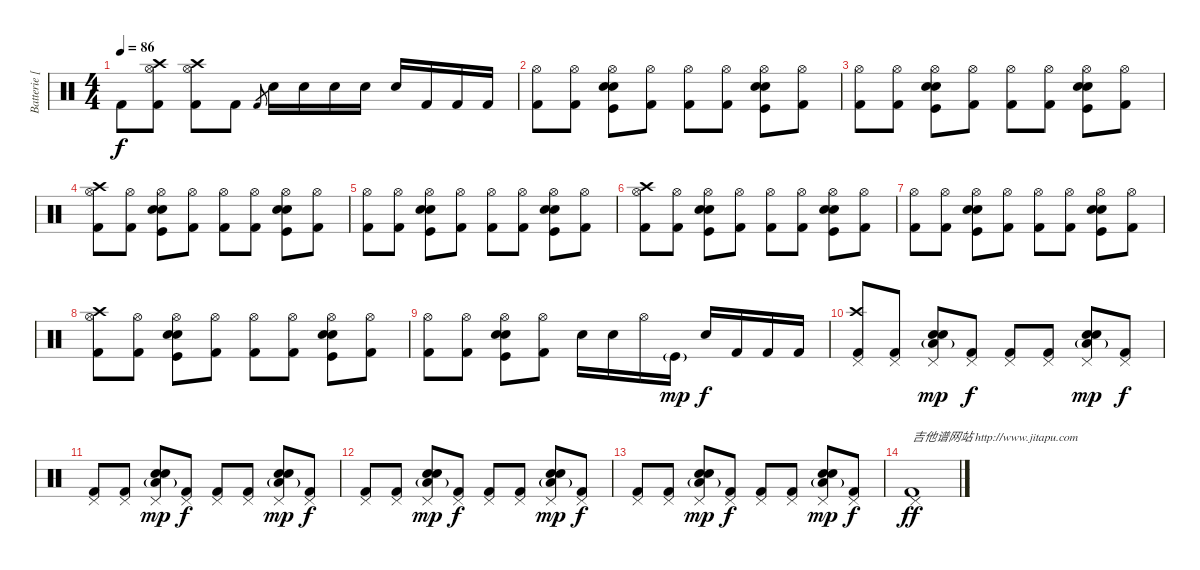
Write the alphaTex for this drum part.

\track ("Batterie [Dominic Howard]" "Batterie [") {instrument percussion}
\staff {score}
\articulation defaults
\ts (4 4)
\tempo 86
\clef neutral
\ks c "Kick (hit) 2".8{dy f}
("Crash high (hit)" "Hi-Hat (open)" "Kick (hit) 2").8 ("Crash high (hit)" "Hi-Hat (open)" "Kick (hit) 2").8 "Kick (hit) 2".8 "Kick (hit) 2"{sl}.8{gr} "Snare (hit) 2".16 "Snare (hit) 2".16 "Snare (hit) 2".16 "Snare (hit) 2".16 "Snare (hit) 2".16 "Kick (hit) 2".16 "Kick (hit) 2".16 "Kick (hit) 2".16 |
("Hi-Hat (open)" "Kick (hit) 2").8 ("Hi-Hat (open)" "Kick (hit) 2").8 ("Hi-Hat (open)" "Snare (hit) 2" "Electric Snare (hit)" "Kick (hit)").8 ("Hi-Hat (open)" "Kick (hit) 2").8 ("Hi-Hat (open)" "Kick (hit) 2").8 ("Hi-Hat (open)" "Kick (hit) 2").8 ("Hi-Hat (open)" "Snare (hit) 2" "Electric Snare (hit)" "Kick (hit)").8 ("Hi-Hat (open)" "Kick (hit) 2").8 |
("Hi-Hat (open)" "Kick (hit) 2").8 ("Hi-Hat (open)" "Kick (hit) 2").8 ("Hi-Hat (open)" "Snare (hit) 2" "Electric Snare (hit)" "Kick (hit)").8 ("Hi-Hat (open)" "Kick (hit) 2").8 ("Hi-Hat (open)" "Kick (hit) 2").8 ("Hi-Hat (open)" "Kick (hit) 2").8 ("Hi-Hat (open)" "Snare (hit) 2" "Electric Snare (hit)" "Kick (hit)").8 ("Hi-Hat (open)" "Kick (hit) 2").8 |
("Hi-Hat (open)" "Crash high (hit)" "Kick (hit) 2").8 ("Hi-Hat (open)" "Kick (hit) 2").8 ("Hi-Hat (open)" "Snare (hit) 2" "Electric Snare (hit)" "Kick (hit)").8 ("Hi-Hat (open)" "Kick (hit) 2").8 ("Hi-Hat (open)" "Kick (hit) 2").8 ("Hi-Hat (open)" "Kick (hit) 2").8 ("Hi-Hat (open)" "Snare (hit) 2" "Electric Snare (hit)" "Kick (hit)").8 ("Hi-Hat (open)" "Kick (hit) 2").8 |
("Hi-Hat (open)" "Kick (hit) 2").8 ("Hi-Hat (open)" "Kick (hit) 2").8 ("Hi-Hat (open)" "Snare (hit) 2" "Electric Snare (hit)" "Kick (hit)").8 ("Hi-Hat (open)" "Kick (hit) 2").8 ("Hi-Hat (open)" "Kick (hit) 2").8 ("Hi-Hat (open)" "Kick (hit) 2").8 ("Hi-Hat (open)" "Snare (hit) 2" "Electric Snare (hit)" "Kick (hit)").8 ("Hi-Hat (open)" "Kick (hit) 2").8 |
("Hi-Hat (open)" "Crash high (hit)" "Kick (hit) 2").8 ("Hi-Hat (open)" "Kick (hit) 2").8 ("Hi-Hat (open)" "Snare (hit) 2" "Electric Snare (hit)" "Kick (hit)").8 ("Hi-Hat (open)" "Kick (hit) 2").8 ("Hi-Hat (open)" "Kick (hit) 2").8 ("Hi-Hat (open)" "Kick (hit) 2").8 ("Hi-Hat (open)" "Snare (hit) 2" "Electric Snare (hit)" "Kick (hit)").8 ("Hi-Hat (open)" "Kick (hit) 2").8 |
("Hi-Hat (open)" "Kick (hit) 2").8 ("Hi-Hat (open)" "Kick (hit) 2").8 ("Hi-Hat (open)" "Snare (hit) 2" "Electric Snare (hit)" "Kick (hit)").8 ("Hi-Hat (open)" "Kick (hit) 2").8 ("Hi-Hat (open)" "Kick (hit) 2").8 ("Hi-Hat (open)" "Kick (hit) 2").8 ("Hi-Hat (open)" "Snare (hit) 2" "Electric Snare (hit)" "Kick (hit)").8 ("Hi-Hat (open)" "Kick (hit) 2").8 |
("Hi-Hat (open)" "Crash high (hit)" "Kick (hit) 2").8 ("Hi-Hat (open)" "Kick (hit) 2").8 ("Hi-Hat (open)" "Snare (hit) 2" "Electric Snare (hit)" "Kick (hit)").8 ("Hi-Hat (open)" "Kick (hit) 2").8 ("Hi-Hat (open)" "Kick (hit) 2").8 ("Hi-Hat (open)" "Kick (hit) 2").8 ("Hi-Hat (open)" "Snare (hit) 2" "Electric Snare (hit)" "Kick (hit)").8 ("Hi-Hat (open)" "Kick (hit) 2").8 |
("Hi-Hat (open)" "Kick (hit) 2").8 ("Hi-Hat (open)" "Kick (hit) 2").8 ("Hi-Hat (open)" "Snare (hit) 2" "Electric Snare (hit)" "Kick (hit)").8 ("Hi-Hat (open)" "Kick (hit) 2").8 "Electric Snare (hit)".16 "Electric Snare (hit)".16 "Hi-Hat (open)".16 "Kick (hit)"{g}.16{dy mp} "Electric Snare (hit)".16{dy f} "Kick (hit) 2".16 "Kick (hit) 2".16 "Kick (hit) 2".16 |
("Kick (hit) 2" "Crash high (hit)" "Pedal Hi-Hat (hit)").8 ("Kick (hit) 2" "Pedal Hi-Hat (hit)").8 ("Snare (hit) 2" "Electric Snare (hit)" "Low Tom (hit)"{g} "Pedal Hi-Hat (hit)").8{dy mp} ("Kick (hit) 2" "Pedal Hi-Hat (hit)").8{dy f} ("Kick (hit) 2" "Pedal Hi-Hat (hit)").8 ("Kick (hit) 2" "Pedal Hi-Hat (hit)").8 ("Snare (hit) 2" "Electric Snare (hit)" "Low Tom (hit)"{g} "Pedal Hi-Hat (hit)").8{dy mp} ("Kick (hit) 2" "Pedal Hi-Hat (hit)").8{dy f} |
("Kick (hit) 2" "Pedal Hi-Hat (hit)").8 ("Kick (hit) 2" "Pedal Hi-Hat (hit)").8 ("Snare (hit) 2" "Electric Snare (hit)" "Low Tom (hit)"{g} "Pedal Hi-Hat (hit)").8{dy mp} ("Kick (hit) 2" "Pedal Hi-Hat (hit)").8{dy f} ("Kick (hit) 2" "Pedal Hi-Hat (hit)").8 ("Kick (hit) 2" "Pedal Hi-Hat (hit)").8 ("Snare (hit) 2" "Electric Snare (hit)" "Low Tom (hit)"{g} "Pedal Hi-Hat (hit)").8{dy mp} ("Kick (hit) 2" "Pedal Hi-Hat (hit)").8{dy f} |
("Kick (hit) 2" "Pedal Hi-Hat (hit)").8 ("Kick (hit) 2" "Pedal Hi-Hat (hit)").8 ("Snare (hit) 2" "Electric Snare (hit)" "Low Tom (hit)"{g} "Pedal Hi-Hat (hit)").8{dy mp} ("Kick (hit) 2" "Pedal Hi-Hat (hit)").8{dy f} ("Kick (hit) 2" "Pedal Hi-Hat (hit)").8 ("Kick (hit) 2" "Pedal Hi-Hat (hit)").8 ("Snare (hit) 2" "Electric Snare (hit)" "Low Tom (hit)"{g} "Pedal Hi-Hat (hit)").8{dy mp} ("Kick (hit) 2" "Pedal Hi-Hat (hit)").8{dy f} |
("Kick (hit) 2" "Pedal Hi-Hat (hit)").8 ("Kick (hit) 2" "Pedal Hi-Hat (hit)").8 ("Snare (hit) 2" "Electric Snare (hit)" "Low Tom (hit)"{g} "Pedal Hi-Hat (hit)").8{dy mp} ("Kick (hit) 2" "Pedal Hi-Hat (hit)").8{dy f} ("Kick (hit) 2" "Pedal Hi-Hat (hit)").8 ("Kick (hit) 2" "Pedal Hi-Hat (hit)").8 ("Snare (hit) 2" "Electric Snare (hit)" "Low Tom (hit)"{g} "Pedal Hi-Hat (hit)").8{dy mp} ("Kick (hit) 2" "Pedal Hi-Hat (hit)").8{dy f} |
("Pedal Hi-Hat (hit)" "Kick (hit) 2").1{txt "吉他谱网站 http://www.jitapu.com" dy ff}
